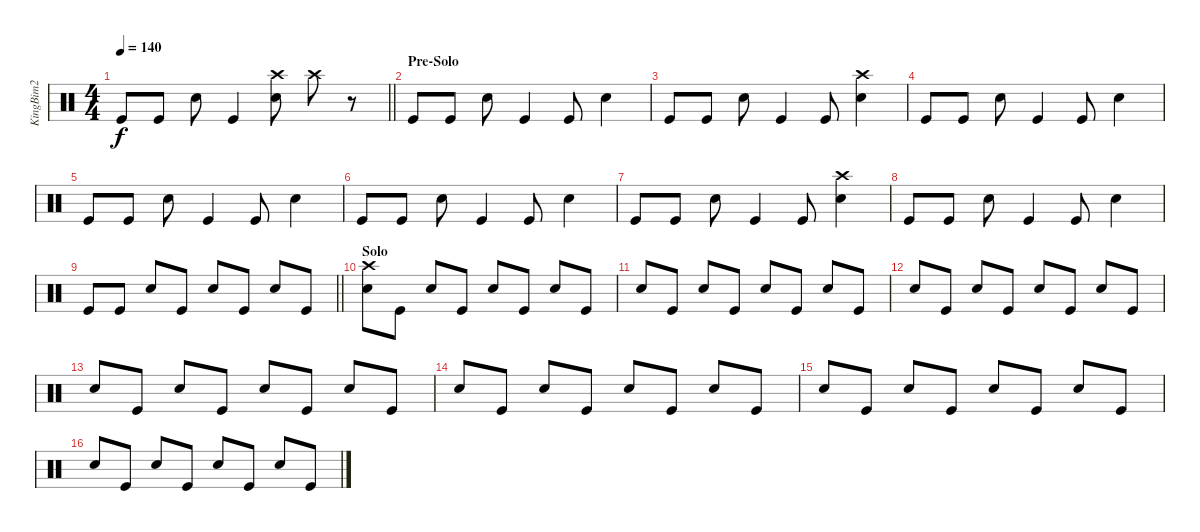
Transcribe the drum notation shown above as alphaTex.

\track ("KingBim2" "KingBim2") {instrument percussion}
\staff {score}
\articulation defaults
\ts (4 4)
\tempo 140
\clef neutral
\barLineRight lightlight
\ks c "Kick (hit)".8{dy f} "Kick (hit)".8 "Snare (hit) 2".8 "Kick (hit)".4
("Crash high (hit)" "Snare (hit) 2").8 "Crash high (hit)".8 r.8 |
\section ("" "Pre-Solo")
"Kick (hit)".8 "Kick (hit)".8 "Snare (hit) 2".8 "Kick (hit)".4 "Kick (hit)".8 "Snare (hit) 2".4 |
"Kick (hit)".8 "Kick (hit)".8 "Snare (hit) 2".8 "Kick (hit)".4 "Kick (hit)".8 ("Crash high (hit)" "Snare (hit) 2").4 |
"Kick (hit)".8 "Kick (hit)".8 "Snare (hit) 2".8 "Kick (hit)".4 "Kick (hit)".8 "Snare (hit) 2".4 |
"Kick (hit)".8 "Kick (hit)".8 "Snare (hit) 2".8 "Kick (hit)".4 "Kick (hit)".8 "Snare (hit) 2".4 |
"Kick (hit)".8 "Kick (hit)".8 "Snare (hit) 2".8 "Kick (hit)".4 "Kick (hit)".8 "Snare (hit) 2".4 |
"Kick (hit)".8 "Kick (hit)".8 "Snare (hit) 2".8 "Kick (hit)".4 "Kick (hit)".8 ("Crash high (hit)" "Snare (hit) 2").4 |
"Kick (hit)".8 "Kick (hit)".8 "Snare (hit) 2".8 "Kick (hit)".4 "Kick (hit)".8 "Snare (hit) 2".4 |
\barLineRight lightlight "Kick (hit)".8 "Kick (hit)".8 "Snare (hit) 2".8 "Kick (hit)".8 "Snare (hit) 2".8 "Kick (hit)".8 "Snare (hit) 2".8 "Kick (hit)".8
|
\section ("" "Solo")
("Crash high (hit)" "Snare (hit) 2").8 "Kick (hit)".8 "Snare (hit) 2".8 "Kick (hit)".8 "Snare (hit) 2".8 "Kick (hit)".8 "Snare (hit) 2".8 "Kick (hit)".8 |
"Snare (hit) 2".8 "Kick (hit)".8 "Snare (hit) 2".8 "Kick (hit)".8 "Snare (hit) 2".8 "Kick (hit)".8 "Snare (hit) 2".8 "Kick (hit)".8 |
"Snare (hit) 2".8 "Kick (hit)".8 "Snare (hit) 2".8 "Kick (hit)".8 "Snare (hit) 2".8 "Kick (hit)".8 "Snare (hit) 2".8 "Kick (hit)".8 |
"Snare (hit) 2".8 "Kick (hit)".8 "Snare (hit) 2".8 "Kick (hit)".8 "Snare (hit) 2".8 "Kick (hit)".8 "Snare (hit) 2".8 "Kick (hit)".8 |
"Snare (hit) 2".8 "Kick (hit)".8 "Snare (hit) 2".8 "Kick (hit)".8 "Snare (hit) 2".8 "Kick (hit)".8 "Snare (hit) 2".8 "Kick (hit)".8 |
"Snare (hit) 2".8 "Kick (hit)".8 "Snare (hit) 2".8 "Kick (hit)".8 "Snare (hit) 2".8 "Kick (hit)".8 "Snare (hit) 2".8 "Kick (hit)".8 |
"Snare (hit) 2".8 "Kick (hit)".8 "Snare (hit) 2".8 "Kick (hit)".8 "Snare (hit) 2".8 "Kick (hit)".8 "Snare (hit) 2".8 "Kick (hit)".8
